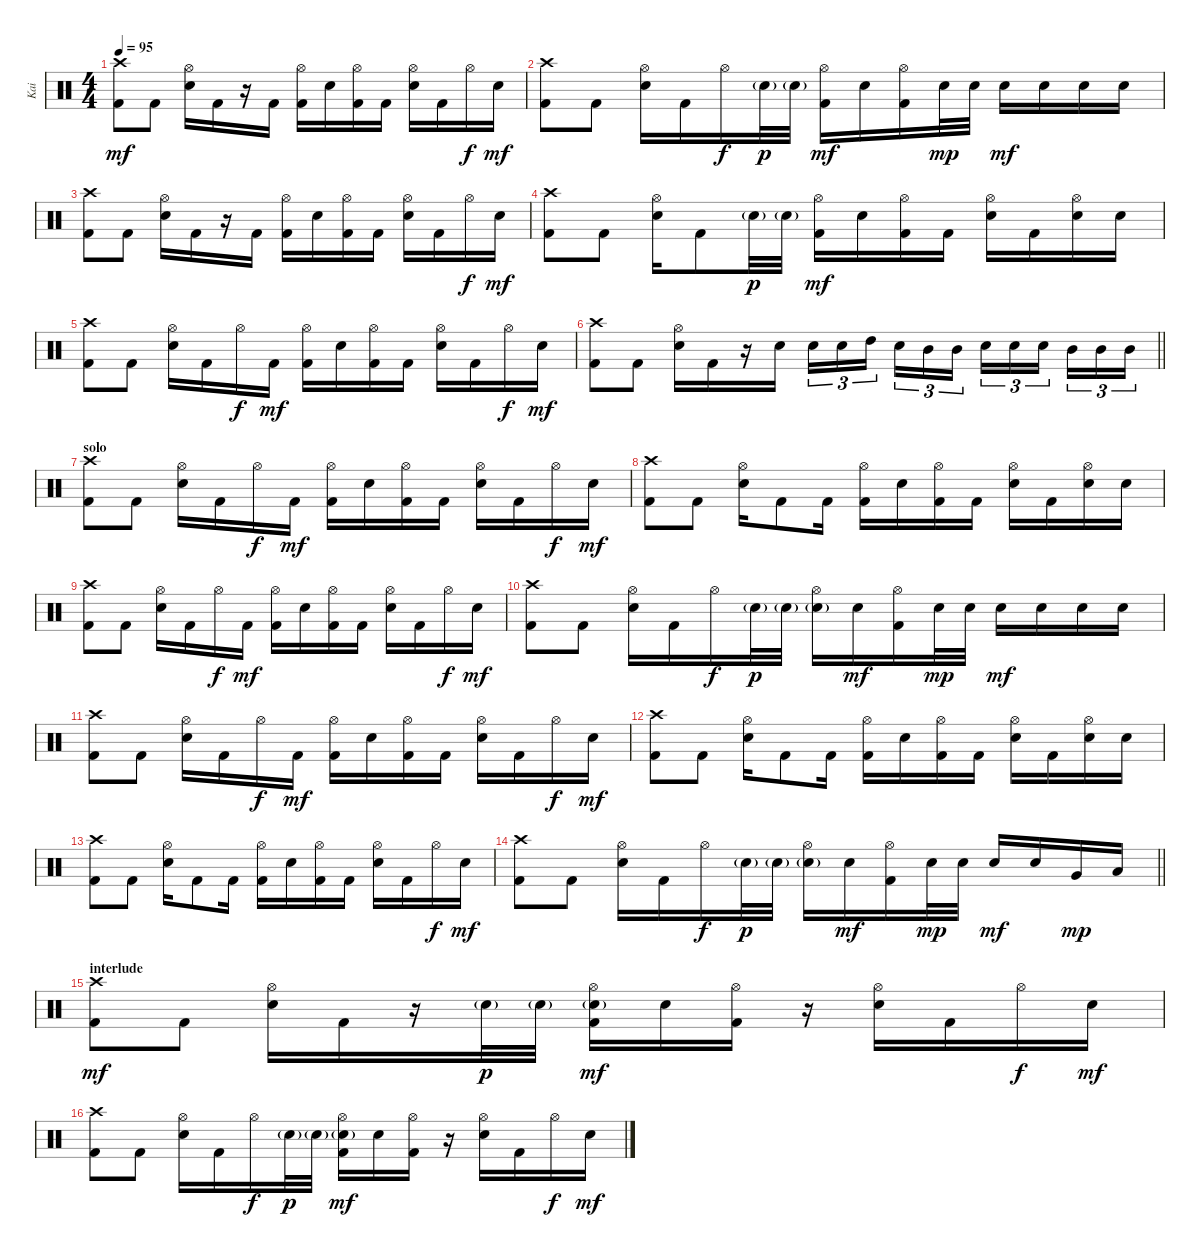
\track ("Kai" "Kai") {instrument percussion}
\staff {score}
\articulation defaults
\ts (4 4)
\tempo 95
\clef neutral
\ks c
("Crash high (hit)" "Kick (hit) 2").8{dy mf} "Kick (hit) 2".8 ("Hi-Hat (open)" "Electric Snare (hit)").16 "Kick (hit) 2".16 r.16 "Kick (hit) 2".16 ("Hi-Hat (open)" "Kick (hit) 2").16 "Electric Snare (hit)".16 ("Hi-Hat (open)" "Kick (hit) 2").16 "Kick (hit) 2".16 ("Hi-Hat (open)" "Electric Snare (hit)").16 "Kick (hit) 2".16 "Hi-Hat (open)".16{dy f} "Electric Snare (hit)".16{dy mf} |
("Crash high (hit)" "Kick (hit) 2").8 "Kick (hit) 2".8 ("Hi-Hat (open)" "Electric Snare (hit)").16 "Kick (hit) 2".16 "Hi-Hat (open)".16{dy f} "Electric Snare (hit)"{g}.32{dy p} "Electric Snare (hit)"{g}.32 ("Hi-Hat (open)" "Kick (hit) 2").16{dy mf} "Electric Snare (hit)".16 ("Hi-Hat (open)" "Kick (hit) 2").16 "Electric Snare (hit)".32{dy mp} "Electric Snare (hit)".32 "Electric Snare (hit)".16{dy mf} "Electric Snare (hit)".16 "Electric Snare (hit)".16 "Electric Snare (hit)".16 |
("Crash high (hit)" "Kick (hit) 2").8 "Kick (hit) 2".8 ("Hi-Hat (open)" "Electric Snare (hit)").16 "Kick (hit) 2".16 r.16 "Kick (hit) 2".16 ("Hi-Hat (open)" "Kick (hit) 2").16 "Electric Snare (hit)".16 ("Hi-Hat (open)" "Kick (hit) 2").16 "Kick (hit) 2".16 ("Hi-Hat (open)" "Electric Snare (hit)").16 "Kick (hit) 2".16 "Hi-Hat (open)".16{dy f} "Electric Snare (hit)".16{dy mf} |
("Crash high (hit)" "Kick (hit) 2").8 "Kick (hit) 2".8 ("Hi-Hat (open)" "Electric Snare (hit)").16 "Kick (hit) 2".8 "Electric Snare (hit)"{g}.32{dy p} "Electric Snare (hit)"{g}.32 ("Hi-Hat (open)" "Kick (hit) 2").16{dy mf} "Electric Snare (hit)".16 ("Hi-Hat (open)" "Kick (hit) 2").16 "Kick (hit) 2".16 ("Hi-Hat (open)" "Electric Snare (hit)").16 "Kick (hit) 2".16 ("Hi-Hat (open)" "Electric Snare (hit)").16 "Electric Snare (hit)".16 |
("Crash high (hit)" "Kick (hit) 2").8 "Kick (hit) 2".8 ("Hi-Hat (open)" "Electric Snare (hit)").16 "Kick (hit) 2".16 "Hi-Hat (open)".16{dy f} "Kick (hit) 2".16{dy mf} ("Hi-Hat (open)" "Kick (hit) 2").16 "Electric Snare (hit)".16 ("Hi-Hat (open)" "Kick (hit) 2").16 "Kick (hit) 2".16 ("Hi-Hat (open)" "Electric Snare (hit)").16 "Kick (hit) 2".16 "Hi-Hat (open)".16{dy f} "Electric Snare (hit)".16{dy mf} |
\barLineRight lightlight
("Crash high (hit)" "Kick (hit) 2").8 "Kick (hit) 2".8 ("Hi-Hat (open)" "Electric Snare (hit)").16 "Kick (hit) 2".16 r.16 "Electric Snare (hit)".16 "Electric Snare (hit)".16{tu (3 2)} "Electric Snare (hit)".16{tu (3 2)} "High Tom (hit)".16{tu (3 2) beam splitsecondary} "Electric Snare (hit)".16{tu (3 2)} "Mid Tom (hit)".16{tu (3 2)} "Mid Tom (hit)".16{tu (3 2)} "Electric Snare (hit)".16{tu (3 2)} "Electric Snare (hit)".16{tu (3 2)} "Electric Snare (hit)".16{tu (3 2) beam splitsecondary} "Mid Tom (hit)".16{tu (3 2)} "Mid Tom (hit)".16{tu (3 2)} "Mid Tom (hit)".16{tu (3 2)} |
\section ("" "solo")
("Crash high (hit)" "Kick (hit) 2").8 "Kick (hit) 2".8 ("Hi-Hat (open)" "Electric Snare (hit)").16 "Kick (hit) 2".16 "Hi-Hat (open)".16{dy f} "Kick (hit) 2".16{dy mf} ("Hi-Hat (open)" "Kick (hit) 2").16 "Electric Snare (hit)".16 ("Hi-Hat (open)" "Kick (hit) 2").16 "Kick (hit) 2".16 ("Hi-Hat (open)" "Electric Snare (hit)").16 "Kick (hit) 2".16 "Hi-Hat (open)".16{dy f} "Electric Snare (hit)".16{dy mf} |
("Crash high (hit)" "Kick (hit) 2").8 "Kick (hit) 2".8 ("Hi-Hat (open)" "Electric Snare (hit)").16 "Kick (hit) 2".8 "Kick (hit) 2".16 ("Hi-Hat (open)" "Kick (hit) 2").16 "Electric Snare (hit)".16 ("Hi-Hat (open)" "Kick (hit) 2").16 "Kick (hit) 2".16 ("Hi-Hat (open)" "Electric Snare (hit)").16 "Kick (hit) 2".16 ("Hi-Hat (open)" "Electric Snare (hit)").16 "Electric Snare (hit)".16 |
("Crash high (hit)" "Kick (hit) 2").8 "Kick (hit) 2".8 ("Hi-Hat (open)" "Electric Snare (hit)").16 "Kick (hit) 2".16 "Hi-Hat (open)".16{dy f} "Kick (hit) 2".16{dy mf} ("Hi-Hat (open)" "Kick (hit) 2").16 "Electric Snare (hit)".16 ("Hi-Hat (open)" "Kick (hit) 2").16 "Kick (hit) 2".16 ("Hi-Hat (open)" "Electric Snare (hit)").16 "Kick (hit) 2".16 "Hi-Hat (open)".16{dy f} "Electric Snare (hit)".16{dy mf} |
("Crash high (hit)" "Kick (hit) 2").8 "Kick (hit) 2".8 ("Hi-Hat (open)" "Electric Snare (hit)").16 "Kick (hit) 2".16 "Hi-Hat (open)".16{dy f} "Electric Snare (hit)"{g}.32{dy p} "Electric Snare (hit)"{g}.32 ("Hi-Hat (open)" "Electric Snare (hit)"{g}).16 "Electric Snare (hit)".16{dy mf} ("Hi-Hat (open)" "Kick (hit) 2").16 "Electric Snare (hit)".32{dy mp} "Electric Snare (hit)".32 "Electric Snare (hit)".16{dy mf} "Electric Snare (hit)".16 "Electric Snare (hit)".16 "Electric Snare (hit)".16 |
("Crash high (hit)" "Kick (hit) 2").8 "Kick (hit) 2".8 ("Hi-Hat (open)" "Electric Snare (hit)").16 "Kick (hit) 2".16 "Hi-Hat (open)".16{dy f} "Kick (hit) 2".16{dy mf} ("Hi-Hat (open)" "Kick (hit) 2").16 "Electric Snare (hit)".16 ("Hi-Hat (open)" "Kick (hit) 2").16 "Kick (hit) 2".16 ("Hi-Hat (open)" "Electric Snare (hit)").16 "Kick (hit) 2".16 "Hi-Hat (open)".16{dy f} "Electric Snare (hit)".16{dy mf} |
("Crash high (hit)" "Kick (hit) 2").8 "Kick (hit) 2".8 ("Hi-Hat (open)" "Electric Snare (hit)").16 "Kick (hit) 2".8 "Kick (hit) 2".16 ("Hi-Hat (open)" "Kick (hit) 2").16 "Electric Snare (hit)".16 ("Hi-Hat (open)" "Kick (hit) 2").16 "Kick (hit) 2".16 ("Hi-Hat (open)" "Electric Snare (hit)").16 "Kick (hit) 2".16 ("Hi-Hat (open)" "Electric Snare (hit)").16 "Electric Snare (hit)".16 |
("Crash high (hit)" "Kick (hit) 2").8 "Kick (hit) 2".8 ("Hi-Hat (open)" "Electric Snare (hit)").16 "Kick (hit) 2".8 "Kick (hit) 2".16 ("Hi-Hat (open)" "Kick (hit) 2").16 "Electric Snare (hit)".16 ("Hi-Hat (open)" "Kick (hit) 2").16 "Kick (hit) 2".16 ("Hi-Hat (open)" "Electric Snare (hit)").16 "Kick (hit) 2".16 "Hi-Hat (open)".16{dy f} "Electric Snare (hit)".16{dy mf} |
\barLineRight lightlight
("Crash high (hit)" "Kick (hit) 2").8 "Kick (hit) 2".8 ("Hi-Hat (open)" "Electric Snare (hit)").16 "Kick (hit) 2".16 "Hi-Hat (open)".16{dy f} "Electric Snare (hit)"{g}.32{dy p} "Electric Snare (hit)"{g}.32 ("Hi-Hat (open)" "Electric Snare (hit)"{g}).16 "Electric Snare (hit)".16{dy mf} ("Hi-Hat (open)" "Kick (hit) 2").16 "Electric Snare (hit)".32{dy mp} "Electric Snare (hit)".32 "Electric Snare (hit)".16{dy mf} "Electric Snare (hit)".16 "Very Low Tom (hit)".16{dy mp} "Low Floor Tom (hit)".16 |
\section ("" "interlude")
("Crash high (hit)" "Kick (hit) 2").8{dy mf} "Kick (hit) 2".8 ("Hi-Hat (open)" "Electric Snare (hit)").16 "Kick (hit) 2".16 r.16 "Electric Snare (hit)"{g}.32{dy p} "Electric Snare (hit)"{g}.32 ("Hi-Hat (open)" "Electric Snare (hit)"{g} "Kick (hit) 2").16{dy mf} "Electric Snare (hit)".16 ("Hi-Hat (open)" "Kick (hit) 2").16 r.16 ("Hi-Hat (open)" "Electric Snare (hit)").16 "Kick (hit) 2".16 "Hi-Hat (open)".16{dy f} "Electric Snare (hit)".16{dy mf} |
("Crash high (hit)" "Kick (hit) 2").8 "Kick (hit) 2".8 ("Hi-Hat (open)" "Electric Snare (hit)").16 "Kick (hit) 2".16 "Hi-Hat (open)".16{dy f} "Electric Snare (hit)"{g}.32{dy p} "Electric Snare (hit)"{g}.32 ("Hi-Hat (open)" "Electric Snare (hit)"{g} "Kick (hit) 2").16{dy mf} "Electric Snare (hit)".16 ("Hi-Hat (open)" "Kick (hit) 2").16 r.16 ("Hi-Hat (open)" "Electric Snare (hit)").16 "Kick (hit) 2".16 "Hi-Hat (open)".16{dy f} "Electric Snare (hit)".16{dy mf}
